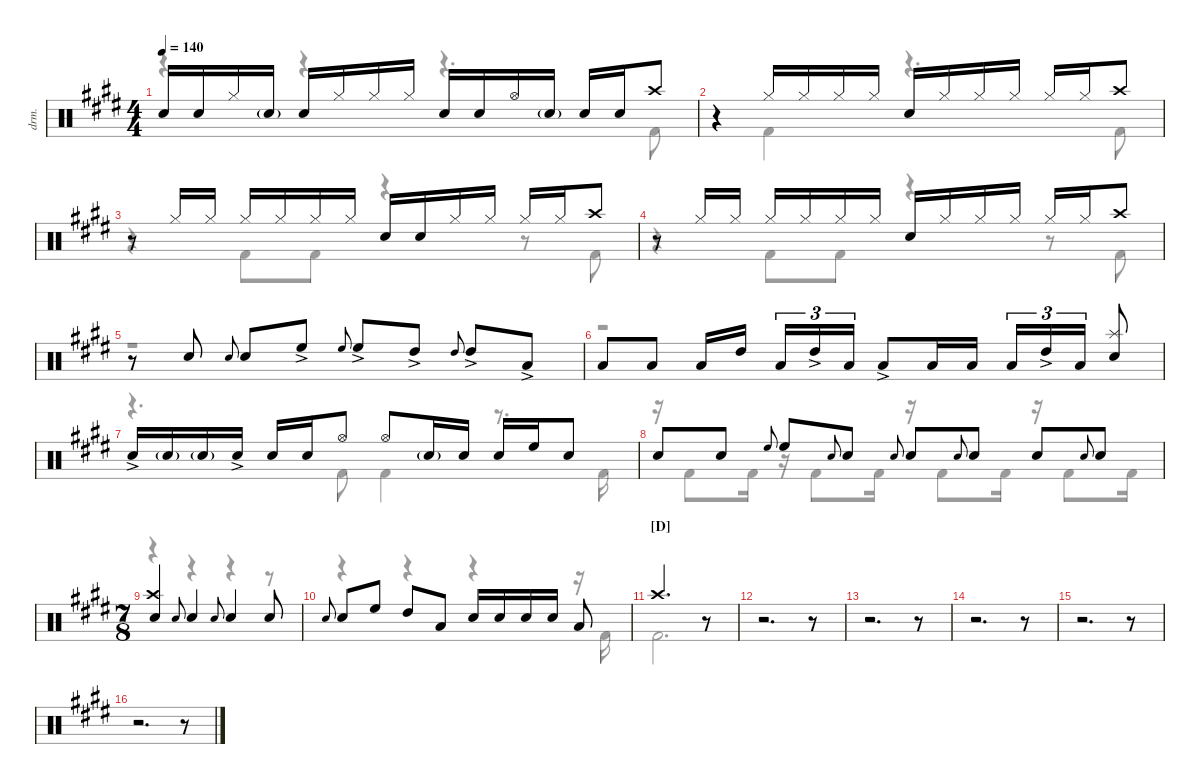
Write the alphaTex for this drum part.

\defaultSystemsLayout 4
\hideDynamics
\bracketExtendMode nobrackets
\track ("Drums" "drm.") {instrument percussion}
\staff {score}
\articulation defaults
\voice
\ts (4 4)
\tempo 140
\clef neutral
\ks e "Snare (hit) 2"{acc forcenatural}.16{dy mf} "Snare (hit) 2"{acc forcenatural}.16 "Hi-Hat (closed)"{acc forcenatural}.16 "Snare (hit) 2"{g acc forcenatural}.16 "Snare (hit) 2"{acc forcenatural}.16 "Hi-Hat (closed)"{acc forcenatural}.16 "Hi-Hat (closed)"{acc forcenatural}.16 "Hi-Hat (closed)"{acc forcenatural}.16 "Snare (hit) 2"{acc forcenatural}.16 "Snare (hit) 2"{acc forcenatural}.16 "Hi-Hat (open)"{acc forcenatural}.16 "Snare (hit) 2"{g acc forcenatural}.16 "Snare (hit) 2"{acc forcenatural}.16 "Snare (hit) 2"{acc forcenatural}.16 "Crash high (hit)"{acc forcenatural}.8
|
r.4 "Hi-Hat (closed)"{acc forcenatural}.16 "Hi-Hat (closed)"{acc forcenatural}.16 "Hi-Hat (closed)"{acc forcenatural}.16 "Hi-Hat (closed)"{acc forcenatural}.16 "Snare (hit) 2"{acc forcenatural}.16 "Hi-Hat (closed)"{acc forcenatural}.16 "Hi-Hat (closed)"{acc forcenatural}.16 "Hi-Hat (closed)"{acc forcenatural}.16 "Hi-Hat (closed)"{acc forcenatural}.16 "Hi-Hat (closed)"{acc forcenatural}.16 "Crash high (hit)"{acc forcenatural}.8 |
r.8 "Hi-Hat (closed)"{acc forcenatural}.16 "Hi-Hat (closed)"{acc forcenatural}.16 "Hi-Hat (closed)"{acc forcenatural}.16 "Hi-Hat (closed)"{acc forcenatural}.16 "Hi-Hat (closed)"{acc forcenatural}.16 "Hi-Hat (closed)"{acc forcenatural}.16 "Snare (hit) 2"{acc forcenatural}.16 "Snare (hit) 2"{acc forcenatural}.16 "Hi-Hat (closed)"{acc forcenatural}.16 "Hi-Hat (closed)"{acc forcenatural}.16 "Hi-Hat (closed)"{acc forcenatural}.16 "Hi-Hat (closed)"{acc forcenatural}.16 "Crash high (hit)"{acc forcenatural}.8 |
r.8 "Hi-Hat (closed)"{acc forcenatural}.16 "Hi-Hat (closed)"{acc forcenatural}.16 "Hi-Hat (closed)"{acc forcenatural}.16 "Hi-Hat (closed)"{acc forcenatural}.16 "Hi-Hat (closed)"{acc forcenatural}.16 "Hi-Hat (closed)"{acc forcenatural}.16 "Snare (hit) 2"{acc forcenatural}.16 "Hi-Hat (closed)"{acc forcenatural}.16 "Hi-Hat (closed)"{acc forcenatural}.16 "Hi-Hat (closed)"{acc forcenatural}.16 "Hi-Hat (closed)"{acc forcenatural}.16 "Hi-Hat (closed)"{acc forcenatural}.16 "Crash high (hit)"{acc forcenatural}.8 |
r.8 "Snare (hit) 2"{acc forcenatural}.8 "Snare (hit) 2"{acc forcenatural}.8{gr onbeat} "Snare (hit) 2"{acc forcenatural}.8 "High Floor Tom (hit)"{ac acc forcenatural}.8 "High Floor Tom (hit)"{acc forcenatural}.8{gr onbeat} "High Floor Tom (hit)"{ac acc forcenatural}.8 "High Tom (hit)"{ac acc forcenatural}.8 "High Tom (hit)"{acc forcenatural}.8{gr onbeat} "High Tom (hit)"{ac acc forcenatural}.8 "Low Tom (hit)"{ac acc forcenatural}.8 |
"Low Tom (hit)"{acc forcenatural}.8 "Low Tom (hit)"{acc forcenatural}.8 "Low Tom (hit)"{acc forcenatural}.16 "High Tom (hit)"{acc forcenatural}.16 "Low Tom (hit)"{acc forcenatural}.16{tu (3 2)} "High Tom (hit)"{ac acc forcenatural}.16{tu (3 2)} "Low Tom (hit)"{acc forcenatural}.16{tu (3 2)} "Low Tom (hit)"{ac acc forcenatural}.8 "Low Tom (hit)"{acc forcenatural}.16 "Low Tom (hit)"{acc forcenatural}.16 "Low Tom (hit)"{acc forcenatural}.16{tu (3 2)} "High Tom (hit)"{ac acc forcenatural}.16{tu (3 2)} "Low Tom (hit)"{acc forcenatural}.16{tu (3 2)} ("Snare (hit) 2"{acc forcenatural} "Splash (hit)"{acc forcenatural}).8 |
"Snare (hit) 2"{ac acc forcenatural}.16 "Snare (hit) 2"{g acc forcenatural}.16 "Snare (hit) 2"{g acc forcenatural}.16 "Snare (hit) 2"{ac acc forcenatural}.16 "Snare (hit) 2"{acc forcenatural}.16 "Snare (hit) 2"{acc forcenatural}.16 "Hi-Hat (open)"{acc forcenatural}.8 "Hi-Hat (open)"{acc forcenatural}.8 "Snare (hit) 2"{g acc forcenatural}.16 "Snare (hit) 2"{acc forcenatural}.16 "Snare (hit) 2"{acc forcenatural}.16 "High Floor Tom (hit)"{acc forcenatural}.16 "Snare (hit) 2"{acc forcenatural}.8 |
"Snare (hit) 2"{acc forcenatural}.8 "Snare (hit) 2"{acc forcenatural}.8 "High Floor Tom (hit)"{acc forcenatural}.8{gr onbeat} "High Floor Tom (hit)"{acc forcenatural}.8 "Snare (hit) 2"{acc forcenatural}.8{gr onbeat} "Snare (hit) 2"{acc forcenatural}.8 "Snare (hit) 2"{acc forcenatural}.8{gr onbeat} "Snare (hit) 2"{acc forcenatural}.8 "Snare (hit) 2"{acc forcenatural}.8{gr onbeat} "Snare (hit) 2"{acc forcenatural}.8 "Snare (hit) 2"{acc forcenatural}.8 "Snare (hit) 2"{acc forcenatural}.8{gr onbeat} "Snare (hit) 2"{acc forcenatural}.8 |
\ts (7 8)
\beaming (8 3 2 2)
("Snare (hit) 2"{acc forcenatural} "Crash high (hit)"{acc forcenatural}).4 "Snare (hit) 2"{acc forcenatural}.8{gr onbeat} "Snare (hit) 2"{acc forcenatural}.4 "Snare (hit) 2"{acc forcenatural}.8{gr onbeat} "Snare (hit) 2"{acc forcenatural}.4 "Snare (hit) 2"{acc forcenatural}.8 |
"Snare (hit) 2"{acc forcenatural}.8{gr onbeat} "Snare (hit) 2"{acc forcenatural}.8 "High Floor Tom (hit)"{acc forcenatural}.8{beam split} "High Tom (hit)"{acc forcenatural}.8{beam merge} "Low Tom (hit)"{acc forcenatural}.8{beam split} "Snare (hit) 2"{acc forcenatural}.16 "Snare (hit) 2"{acc forcenatural}.16{beam merge} "Snare (hit) 2"{acc forcenatural}.16 "Snare (hit) 2"{acc forcenatural}.16{beam split} "Low Tom (hit)"{acc forcenatural}.8 |
\section ("D" "")
"Crash high (hit)"{acc forcenatural}.2{d} r.8 |
r.2{d} r.8 |
r.2{d} r.8 |
r.2{d} r.8 |
r.2{d} r.8 |
r.2{d} r.8
\voice
\clef neutral
\ottava regular
\simile none
\ks e
r.4{dy mf} r.4 r.4{d} "Kick (hit) 2"{acc forcenatural}.8 |
r.4 "Kick (hit) 2"{acc forcenatural}.4 r.4{d} "Kick (hit) 2"{acc forcenatural}.8 |
r.4 "Kick (hit) 2"{acc forcenatural}.8 "Kick (hit) 2"{acc forcenatural}.8 r.4 r.8 "Kick (hit) 2"{acc forcenatural}.8 |
r.4 "Kick (hit) 2"{acc forcenatural}.8 "Kick (hit) 2"{acc forcenatural}.8 r.4 r.8 "Kick (hit) 2"{acc forcenatural}.8 |
r.1 |
r.1 |
r.4{d} "Kick (hit) 2"{acc forcenatural}.8 "Kick (hit) 2"{acc forcenatural}.4 r.8{d} "Kick (hit) 2"{acc forcenatural}.16 |
r.16 "Kick (hit) 2"{acc forcenatural}.8 "Kick (hit) 2"{acc forcenatural}.16 r.16 "Kick (hit) 2"{acc forcenatural}.8 "Kick (hit) 2"{acc forcenatural}.16 r.16 "Kick (hit) 2"{acc forcenatural}.8 "Kick (hit) 2"{acc forcenatural}.16 r.16 "Kick (hit) 2"{acc forcenatural}.8 "Kick (hit) 2"{acc forcenatural}.16 |
r.4 r.4 r.4 r.8 |
r.4 r.4 r.4 r.16 "Kick (hit) 2"{acc forcenatural}.16 |
"Kick (hit) 2"{acc forcenatural}.2{d} r.8 |
r.2{d} r.8 |
r.2{d} r.8 |
r.2{d} r.8 |
r.2{d} r.8 |
r.2{d} r.8
